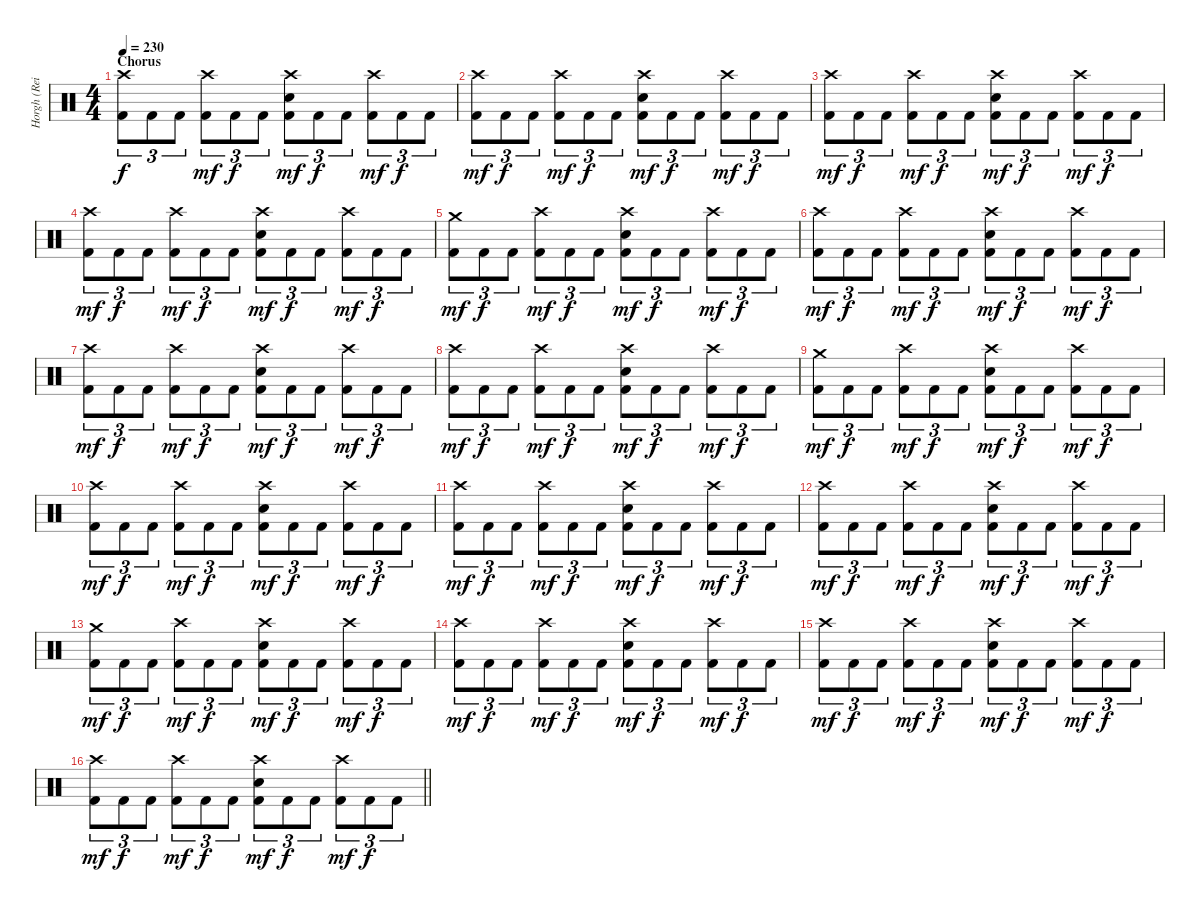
\track ("Horgh (Reidar Horghagen)" "Horgh (Rei") {instrument percussion}
\staff {score}
\articulation defaults
\ts (4 4)
\section ("" "Chorus")
\tempo 230
\clef neutral
\ks c
("Crash high (hit)" "Kick (hit) 2").8{tu (3 2) dy f} "Kick (hit) 2".8{tu (3 2)} "Kick (hit) 2".8{tu (3 2)} ("Crash high (hit)" "Kick (hit) 2").8{tu (3 2) dy mf} "Kick (hit) 2".8{tu (3 2) dy f} "Kick (hit) 2".8{tu (3 2)} ("Crash high (hit)" "Snare (hit) 2" "Kick (hit) 2").8{tu (3 2) dy mf} "Kick (hit) 2".8{tu (3 2) dy f} "Kick (hit) 2".8{tu (3 2)} ("Crash high (hit)" "Kick (hit) 2").8{tu (3 2) dy mf} "Kick (hit) 2".8{tu (3 2) dy f} "Kick (hit) 2".8{tu (3 2)} |
("Crash high (hit)" "Kick (hit) 2").8{tu (3 2) dy mf} "Kick (hit) 2".8{tu (3 2) dy f} "Kick (hit) 2".8{tu (3 2)} ("Crash high (hit)" "Kick (hit) 2").8{tu (3 2) dy mf} "Kick (hit) 2".8{tu (3 2) dy f} "Kick (hit) 2".8{tu (3 2)} ("Crash high (hit)" "Snare (hit) 2" "Kick (hit) 2").8{tu (3 2) dy mf} "Kick (hit) 2".8{tu (3 2) dy f} "Kick (hit) 2".8{tu (3 2)} ("Crash high (hit)" "Kick (hit) 2").8{tu (3 2) dy mf} "Kick (hit) 2".8{tu (3 2) dy f} "Kick (hit) 2".8{tu (3 2)} |
("Crash high (hit)" "Kick (hit) 2").8{tu (3 2) dy mf} "Kick (hit) 2".8{tu (3 2) dy f} "Kick (hit) 2".8{tu (3 2)} ("Crash high (hit)" "Kick (hit) 2").8{tu (3 2) dy mf} "Kick (hit) 2".8{tu (3 2) dy f} "Kick (hit) 2".8{tu (3 2)} ("Crash high (hit)" "Snare (hit) 2" "Kick (hit) 2").8{tu (3 2) dy mf} "Kick (hit) 2".8{tu (3 2) dy f} "Kick (hit) 2".8{tu (3 2)} ("Crash high (hit)" "Kick (hit) 2").8{tu (3 2) dy mf} "Kick (hit) 2".8{tu (3 2) dy f} "Kick (hit) 2".8{tu (3 2)} |
("Crash high (hit)" "Kick (hit) 2").8{tu (3 2) dy mf} "Kick (hit) 2".8{tu (3 2) dy f} "Kick (hit) 2".8{tu (3 2)} ("Crash high (hit)" "Kick (hit) 2").8{tu (3 2) dy mf} "Kick (hit) 2".8{tu (3 2) dy f} "Kick (hit) 2".8{tu (3 2)} ("Crash high (hit)" "Snare (hit) 2" "Kick (hit) 2").8{tu (3 2) dy mf} "Kick (hit) 2".8{tu (3 2) dy f} "Kick (hit) 2".8{tu (3 2)} ("Crash high (hit)" "Kick (hit) 2").8{tu (3 2) dy mf} "Kick (hit) 2".8{tu (3 2) dy f} "Kick (hit) 2".8{tu (3 2)} |
("Crash medium (hit)" "Kick (hit) 2").8{tu (3 2) dy mf} "Kick (hit) 2".8{tu (3 2) dy f} "Kick (hit) 2".8{tu (3 2)} ("Crash high (hit)" "Kick (hit) 2").8{tu (3 2) dy mf} "Kick (hit) 2".8{tu (3 2) dy f} "Kick (hit) 2".8{tu (3 2)} ("Crash high (hit)" "Snare (hit) 2" "Kick (hit) 2").8{tu (3 2) dy mf} "Kick (hit) 2".8{tu (3 2) dy f} "Kick (hit) 2".8{tu (3 2)} ("Crash high (hit)" "Kick (hit) 2").8{tu (3 2) dy mf} "Kick (hit) 2".8{tu (3 2) dy f} "Kick (hit) 2".8{tu (3 2)} |
("Crash high (hit)" "Kick (hit) 2").8{tu (3 2) dy mf} "Kick (hit) 2".8{tu (3 2) dy f} "Kick (hit) 2".8{tu (3 2)} ("Crash high (hit)" "Kick (hit) 2").8{tu (3 2) dy mf} "Kick (hit) 2".8{tu (3 2) dy f} "Kick (hit) 2".8{tu (3 2)} ("Crash high (hit)" "Snare (hit) 2" "Kick (hit) 2").8{tu (3 2) dy mf} "Kick (hit) 2".8{tu (3 2) dy f} "Kick (hit) 2".8{tu (3 2)} ("Crash high (hit)" "Kick (hit) 2").8{tu (3 2) dy mf} "Kick (hit) 2".8{tu (3 2) dy f} "Kick (hit) 2".8{tu (3 2)} |
("Crash high (hit)" "Kick (hit) 2").8{tu (3 2) dy mf} "Kick (hit) 2".8{tu (3 2) dy f} "Kick (hit) 2".8{tu (3 2)} ("Crash high (hit)" "Kick (hit) 2").8{tu (3 2) dy mf} "Kick (hit) 2".8{tu (3 2) dy f} "Kick (hit) 2".8{tu (3 2)} ("Crash high (hit)" "Snare (hit) 2" "Kick (hit) 2").8{tu (3 2) dy mf} "Kick (hit) 2".8{tu (3 2) dy f} "Kick (hit) 2".8{tu (3 2)} ("Crash high (hit)" "Kick (hit) 2").8{tu (3 2) dy mf} "Kick (hit) 2".8{tu (3 2) dy f} "Kick (hit) 2".8{tu (3 2)} |
("Crash high (hit)" "Kick (hit) 2").8{tu (3 2) dy mf} "Kick (hit) 2".8{tu (3 2) dy f} "Kick (hit) 2".8{tu (3 2)} ("Crash high (hit)" "Kick (hit) 2").8{tu (3 2) dy mf} "Kick (hit) 2".8{tu (3 2) dy f} "Kick (hit) 2".8{tu (3 2)} ("Crash high (hit)" "Snare (hit) 2" "Kick (hit) 2").8{tu (3 2) dy mf} "Kick (hit) 2".8{tu (3 2) dy f} "Kick (hit) 2".8{tu (3 2)} ("Crash high (hit)" "Kick (hit) 2").8{tu (3 2) dy mf} "Kick (hit) 2".8{tu (3 2) dy f} "Kick (hit) 2".8{tu (3 2)} |
("Crash medium (hit)" "Kick (hit) 2").8{tu (3 2) dy mf} "Kick (hit) 2".8{tu (3 2) dy f} "Kick (hit) 2".8{tu (3 2)} ("Crash high (hit)" "Kick (hit) 2").8{tu (3 2) dy mf} "Kick (hit) 2".8{tu (3 2) dy f} "Kick (hit) 2".8{tu (3 2)} ("Crash high (hit)" "Snare (hit) 2" "Kick (hit) 2").8{tu (3 2) dy mf} "Kick (hit) 2".8{tu (3 2) dy f} "Kick (hit) 2".8{tu (3 2)} ("Crash high (hit)" "Kick (hit) 2").8{tu (3 2) dy mf} "Kick (hit) 2".8{tu (3 2) dy f} "Kick (hit) 2".8{tu (3 2)} |
("Crash high (hit)" "Kick (hit) 2").8{tu (3 2) dy mf} "Kick (hit) 2".8{tu (3 2) dy f} "Kick (hit) 2".8{tu (3 2)} ("Crash high (hit)" "Kick (hit) 2").8{tu (3 2) dy mf} "Kick (hit) 2".8{tu (3 2) dy f} "Kick (hit) 2".8{tu (3 2)} ("Crash high (hit)" "Snare (hit) 2" "Kick (hit) 2").8{tu (3 2) dy mf} "Kick (hit) 2".8{tu (3 2) dy f} "Kick (hit) 2".8{tu (3 2)} ("Crash high (hit)" "Kick (hit) 2").8{tu (3 2) dy mf} "Kick (hit) 2".8{tu (3 2) dy f} "Kick (hit) 2".8{tu (3 2)} |
("Crash high (hit)" "Kick (hit) 2").8{tu (3 2) dy mf} "Kick (hit) 2".8{tu (3 2) dy f} "Kick (hit) 2".8{tu (3 2)} ("Crash high (hit)" "Kick (hit) 2").8{tu (3 2) dy mf} "Kick (hit) 2".8{tu (3 2) dy f} "Kick (hit) 2".8{tu (3 2)} ("Crash high (hit)" "Snare (hit) 2" "Kick (hit) 2").8{tu (3 2) dy mf} "Kick (hit) 2".8{tu (3 2) dy f} "Kick (hit) 2".8{tu (3 2)} ("Crash high (hit)" "Kick (hit) 2").8{tu (3 2) dy mf} "Kick (hit) 2".8{tu (3 2) dy f} "Kick (hit) 2".8{tu (3 2)} |
("Crash high (hit)" "Kick (hit) 2").8{tu (3 2) dy mf} "Kick (hit) 2".8{tu (3 2) dy f} "Kick (hit) 2".8{tu (3 2)} ("Crash high (hit)" "Kick (hit) 2").8{tu (3 2) dy mf} "Kick (hit) 2".8{tu (3 2) dy f} "Kick (hit) 2".8{tu (3 2)} ("Crash high (hit)" "Snare (hit) 2" "Kick (hit) 2").8{tu (3 2) dy mf} "Kick (hit) 2".8{tu (3 2) dy f} "Kick (hit) 2".8{tu (3 2)} ("Crash high (hit)" "Kick (hit) 2").8{tu (3 2) dy mf} "Kick (hit) 2".8{tu (3 2) dy f} "Kick (hit) 2".8{tu (3 2)} |
("Crash medium (hit)" "Kick (hit) 2").8{tu (3 2) dy mf} "Kick (hit) 2".8{tu (3 2) dy f} "Kick (hit) 2".8{tu (3 2)} ("Crash high (hit)" "Kick (hit) 2").8{tu (3 2) dy mf} "Kick (hit) 2".8{tu (3 2) dy f} "Kick (hit) 2".8{tu (3 2)} ("Crash high (hit)" "Snare (hit) 2" "Kick (hit) 2").8{tu (3 2) dy mf} "Kick (hit) 2".8{tu (3 2) dy f} "Kick (hit) 2".8{tu (3 2)} ("Crash high (hit)" "Kick (hit) 2").8{tu (3 2) dy mf} "Kick (hit) 2".8{tu (3 2) dy f} "Kick (hit) 2".8{tu (3 2)} |
("Crash high (hit)" "Kick (hit) 2").8{tu (3 2) dy mf} "Kick (hit) 2".8{tu (3 2) dy f} "Kick (hit) 2".8{tu (3 2)} ("Crash high (hit)" "Kick (hit) 2").8{tu (3 2) dy mf} "Kick (hit) 2".8{tu (3 2) dy f} "Kick (hit) 2".8{tu (3 2)} ("Crash high (hit)" "Snare (hit) 2" "Kick (hit) 2").8{tu (3 2) dy mf} "Kick (hit) 2".8{tu (3 2) dy f} "Kick (hit) 2".8{tu (3 2)} ("Crash high (hit)" "Kick (hit) 2").8{tu (3 2) dy mf} "Kick (hit) 2".8{tu (3 2) dy f} "Kick (hit) 2".8{tu (3 2)} |
("Crash high (hit)" "Kick (hit) 2").8{tu (3 2) dy mf} "Kick (hit) 2".8{tu (3 2) dy f} "Kick (hit) 2".8{tu (3 2)} ("Crash high (hit)" "Kick (hit) 2").8{tu (3 2) dy mf} "Kick (hit) 2".8{tu (3 2) dy f} "Kick (hit) 2".8{tu (3 2)} ("Crash high (hit)" "Snare (hit) 2" "Kick (hit) 2").8{tu (3 2) dy mf} "Kick (hit) 2".8{tu (3 2) dy f} "Kick (hit) 2".8{tu (3 2)} ("Crash high (hit)" "Kick (hit) 2").8{tu (3 2) dy mf} "Kick (hit) 2".8{tu (3 2) dy f} "Kick (hit) 2".8{tu (3 2)} |
\barLineRight lightlight
("Crash high (hit)" "Kick (hit) 2").8{tu (3 2) dy mf} "Kick (hit) 2".8{tu (3 2) dy f} "Kick (hit) 2".8{tu (3 2)} ("Crash high (hit)" "Kick (hit) 2").8{tu (3 2) dy mf} "Kick (hit) 2".8{tu (3 2) dy f} "Kick (hit) 2".8{tu (3 2)} ("Crash high (hit)" "Snare (hit) 2" "Kick (hit) 2").8{tu (3 2) dy mf} "Kick (hit) 2".8{tu (3 2) dy f} "Kick (hit) 2".8{tu (3 2)} ("Crash high (hit)" "Kick (hit) 2").8{tu (3 2) dy mf} "Kick (hit) 2".8{tu (3 2) dy f} "Kick (hit) 2".8{tu (3 2)}
